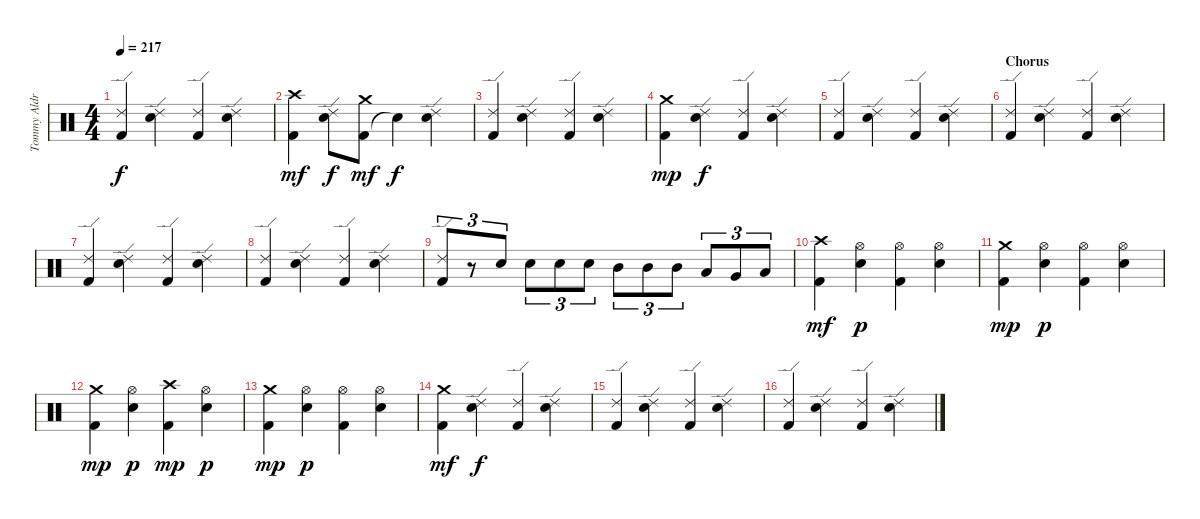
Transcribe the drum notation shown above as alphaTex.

\track ("Tommy Aldridge" "Tommy Aldr") {instrument percussion}
\staff {score}
\articulation defaults
\ts (4 4)
\tempo 217
\clef neutral
\ks c
("Kick (hit) 2" "Ride (edge) 2").4{dy f} ("Ride (edge) 2" "Snare (hit) 2").4 ("Kick (hit) 2" "Ride (edge) 2").4 ("Ride (edge) 2" "Snare (hit) 2").4 |
("Kick (hit) 2" "Crash high (hit)").4{dy mf} ("Ride (edge) 2" "Snare (hit) 2").8{dy f} ("Kick (hit) 2" "Crash medium (hit)").8{dy mf} "Snare (hit)"{t}.4{dy f} ("Ride (edge) 2" "Snare (hit) 2").4 |
("Kick (hit) 2" "Ride (edge) 2").4 ("Ride (edge) 2" "Snare (hit) 2").4 ("Kick (hit) 2" "Ride (edge) 2").4 ("Ride (edge) 2" "Snare (hit) 2").4 |
("Kick (hit) 2" "Crash medium (hit)").4{dy mp} ("Ride (edge) 2" "Snare (hit) 2").4{dy f} ("Kick (hit) 2" "Ride (edge) 2").4 ("Ride (edge) 2" "Snare (hit) 2").4 |
("Kick (hit) 2" "Ride (edge) 2").4 ("Ride (edge) 2" "Snare (hit) 2").4 ("Kick (hit) 2" "Ride (edge) 2").4 ("Ride (edge) 2" "Snare (hit) 2").4 |
\section ("" "Chorus")
("Kick (hit) 2" "Ride (edge) 2").4 ("Ride (edge) 2" "Snare (hit) 2").4 ("Kick (hit) 2" "Ride (edge) 2").4 ("Ride (edge) 2" "Snare (hit) 2").4 |
("Kick (hit) 2" "Ride (edge) 2").4 ("Ride (edge) 2" "Snare (hit) 2").4 ("Kick (hit) 2" "Ride (edge) 2").4 ("Ride (edge) 2" "Snare (hit) 2").4 |
("Kick (hit) 2" "Ride (edge) 2").4 ("Ride (edge) 2" "Snare (hit) 2").4 ("Kick (hit) 2" "Ride (edge) 2").4 ("Ride (edge) 2" "Snare (hit) 2").4 |
("Kick (hit) 2" "Ride (edge) 2").8{tu (3 2)} r.8{tu (3 2)} "Snare (hit) 2".8{tu (3 2)} "Snare (hit) 2".8{tu (3 2)} "Snare (hit) 2".8{tu (3 2)} "Snare (hit) 2".8{tu (3 2)} "Mid Tom (hit)".8{tu (3 2)} "Mid Tom (hit)".8{tu (3 2)} "Mid Tom (hit)".8{tu (3 2)} "Low Tom (hit)".8{tu (3 2)} "Very Low Tom (hit)".8{tu (3 2)} "Low Floor Tom (hit)".8{tu (3 2)} |
("Kick (hit) 2" "Crash high (hit)").4{dy mf} ("Hi-Hat (open)" "Snare (hit) 2").4{dy p} ("Kick (hit) 2" "Hi-Hat (open)").4 ("Hi-Hat (open)" "Snare (hit) 2").4 |
("Kick (hit) 2" "Crash medium (hit)").4{dy mp} ("Hi-Hat (open)" "Snare (hit) 2").4{dy p} ("Kick (hit) 2" "Hi-Hat (open)").4 ("Hi-Hat (open)" "Snare (hit) 2").4 |
("Kick (hit) 2" "Crash medium (hit)").4{dy mp} ("Hi-Hat (open)" "Snare (hit) 2").4{dy p} ("Kick (hit) 2" "Crash high (hit)").4{dy mp} ("Hi-Hat (open)" "Snare (hit) 2").4{dy p} |
("Kick (hit) 2" "Crash medium (hit)").4{dy mp} ("Hi-Hat (open)" "Snare (hit) 2").4{dy p} ("Kick (hit) 2" "Hi-Hat (open)").4 ("Hi-Hat (open)" "Snare (hit) 2").4 |
("Kick (hit) 2" "Crash medium (hit)").4{dy mf} ("Ride (edge) 2" "Snare (hit) 2").4{dy f} ("Kick (hit) 2" "Ride (edge) 2").4 ("Ride (edge) 2" "Snare (hit) 2").4 |
("Kick (hit) 2" "Ride (edge) 2").4 ("Ride (edge) 2" "Snare (hit) 2").4 ("Kick (hit) 2" "Ride (edge) 2").4 ("Ride (edge) 2" "Snare (hit) 2").4 |
("Kick (hit) 2" "Ride (edge) 2").4 ("Ride (edge) 2" "Snare (hit) 2").4 ("Kick (hit) 2" "Ride (edge) 2").4 ("Ride (edge) 2" "Snare (hit) 2").4
